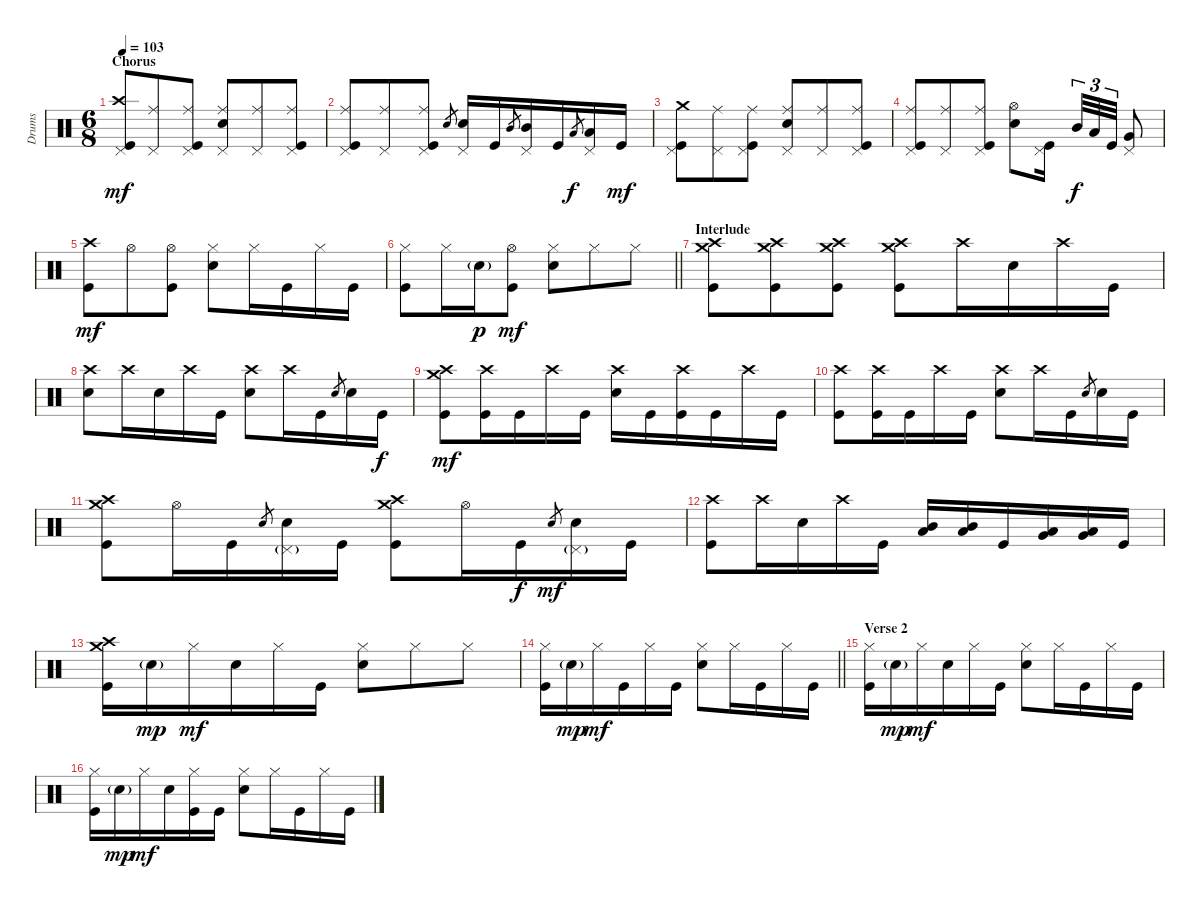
\track ("Drums" "Drums") {instrument percussion}
\staff {score}
\articulation defaults
\ts (6 8)
\section ("" "Chorus")
\tempo 103
\clef neutral
\ks c
("Pedal Hi-Hat (hit)" "Crash high (hit)" "Kick (hit)").8{dy mf} ("Pedal Hi-Hat (hit)" "Ride (middle)").8 ("Pedal Hi-Hat (hit)" "Ride (middle)" "Kick (hit)").8 ("Pedal Hi-Hat (hit)" "Ride (middle)" "Snare (hit) 2").8 ("Pedal Hi-Hat (hit)" "Ride (middle)").8 ("Pedal Hi-Hat (hit)" "Ride (middle)" "Kick (hit)").8 |
("Pedal Hi-Hat (hit)" "Ride (middle)" "Kick (hit)").8 ("Pedal Hi-Hat (hit)" "Ride (middle)").8 ("Pedal Hi-Hat (hit)" "Ride (middle)" "Kick (hit)").8 "Snare (hit) 2".8{gr} ("Pedal Hi-Hat (hit)" "Snare (hit) 2").16 "Kick (hit)".16 "Mid Tom (hit)".8{gr} ("Pedal Hi-Hat (hit)" "Mid Tom (hit)").16 "Kick (hit)".16 "Low Tom (hit)".8{gr dy f} ("Pedal Hi-Hat (hit)" "Low Tom (hit)").16 "Kick (hit)".16{dy mf} |
("Crash medium (hit)" "Pedal Hi-Hat (hit)" "Kick (hit)").8 ("Pedal Hi-Hat (hit)" "Ride (middle)").8 ("Pedal Hi-Hat (hit)" "Ride (middle)" "Kick (hit)").8 ("Pedal Hi-Hat (hit)" "Ride (middle)" "Snare (hit) 2").8 ("Pedal Hi-Hat (hit)" "Ride (middle)").8 ("Pedal Hi-Hat (hit)" "Ride (middle)" "Kick (hit)").8 |
("Pedal Hi-Hat (hit)" "Ride (middle)" "Kick (hit)").8 ("Pedal Hi-Hat (hit)" "Ride (middle)").8 ("Pedal Hi-Hat (hit)" "Ride (middle)" "Kick (hit)").8 ("Hi-Hat (open)" "Snare (hit) 2").8 ("Pedal Hi-Hat (hit)" "Kick (hit)").16{beam splitsecondary} "Mid Tom (hit)".32{tu (3 2) dy f} "Low Tom (hit)".32{tu (3 2)} "Kick (hit)".32{tu (3 2)} ("Pedal Hi-Hat (hit)" "Very Low Tom (hit)").8 |
("Crash high (hit)" "Kick (hit)").8{dy mf} "Hi-Hat (open)".8 ("Hi-Hat (open)" "Kick (hit)").8 ("Hi-Hat (closed)" "Snare (hit) 2").8 "Hi-Hat (closed)".16 "Kick (hit)".16 "Hi-Hat (closed)".16 "Kick (hit)".16 |
\barLineRight lightlight
("Hi-Hat (closed)" "Kick (hit)").8 "Hi-Hat (closed)".16 "Snare (hit) 2"{g}.16{dy p} ("Hi-Hat (open)" "Kick (hit)").8{dy mf} ("Hi-Hat (closed)" "Snare (hit) 2").8 "Hi-Hat (closed)".8 "Hi-Hat (closed)".8 |
\section ("" "Interlude")
("Crash medium (hit)" "Crash high (hit)" "Kick (hit)").8 ("Crash medium (hit)" "Crash high (hit)" "Kick (hit)").8 ("Crash medium (hit)" "Crash high (hit)" "Kick (hit)").8 ("Crash medium (hit)" "Crash high (hit)" "Kick (hit)").8 "Crash high (hit)".16 "Snare (hit) 2".16 "Crash high (hit)".16 "Kick (hit)".16 |
("Crash high (hit)" "Snare (hit) 2").8 "Crash high (hit)".16 "Snare (hit) 2".16 "Crash high (hit)".16 "Kick (hit)".16 ("Crash high (hit)" "Snare (hit) 2").8 "Crash high (hit)".16 "Kick (hit)".16 "Snare (hit) 2".8{gr} "Snare (hit) 2".16 "Kick (hit)".16{dy f} |
("Crash medium (hit)" "Crash high (hit)" "Kick (hit)").8{dy mf} ("Crash high (hit)" "Kick (hit)").16 "Kick (hit)".16 "Crash high (hit)".16 "Kick (hit)".16 ("Crash high (hit)" "Snare (hit) 2").16 "Kick (hit)".16 ("Crash high (hit)" "Kick (hit)").16 "Kick (hit)".16 "Crash high (hit)".16 "Kick (hit)".16 |
("Crash high (hit)" "Kick (hit)").8 ("Crash high (hit)" "Kick (hit)").16 "Kick (hit)".16 "Crash high (hit)".16 "Kick (hit)".16 ("Crash high (hit)" "Snare (hit) 2").8 "Crash high (hit)".16 "Kick (hit)".16 "Snare (hit) 2".8{gr} "Snare (hit) 2".16 "Kick (hit)".16 |
("Crash medium (hit)" "Crash high (hit)" "Kick (hit)").8 "Hi-Hat (open)".16 "Kick (hit)".16 "Snare (hit) 2".8{gr} ("Pedal Hi-Hat (hit)"{g} "Snare (hit) 2").16 "Kick (hit)".16 ("Crash medium (hit)" "Crash high (hit)" "Kick (hit)").8 "Hi-Hat (open)".16 "Kick (hit)".16{dy f} "Snare (hit) 2".8{gr dy mf} ("Pedal Hi-Hat (hit)"{g} "Snare (hit) 2").16 "Kick (hit)".16 |
("Crash high (hit)" "Kick (hit)").8 "Crash high (hit)".16 "Snare (hit) 2".16 "Crash high (hit)".16 "Kick (hit)".16 ("Mid Tom (hit)" "Low Tom (hit)").16 ("Mid Tom (hit)" "Low Tom (hit)").16 "Kick (hit)".16 ("Low Tom (hit)" "Very Low Tom (hit)").16 ("Low Tom (hit)" "Very Low Tom (hit)").16 "Kick (hit)".16 |
("Crash medium (hit)" "Crash high (hit)" "Kick (hit)").16 "Snare (hit) 2"{g}.16{dy mp} "Hi-Hat (closed)".16{dy mf} "Snare (hit) 2".16 "Hi-Hat (closed)".16 "Kick (hit)".16 ("Hi-Hat (closed)" "Snare (hit) 2").8 "Hi-Hat (closed)".8 "Hi-Hat (closed)".8 |
\barLineRight lightlight
("Hi-Hat (closed)" "Kick (hit)").16 "Snare (hit) 2"{g}.16{dy mp} "Hi-Hat (closed)".16{dy mf} "Kick (hit)".16 "Hi-Hat (closed)".16 "Kick (hit)".16 ("Hi-Hat (closed)" "Snare (hit) 2").8 "Hi-Hat (closed)".16 "Kick (hit)".16 "Hi-Hat (closed)".16 "Kick (hit)".16 |
\section ("" "Verse 2")
("Kick (hit)" "Hi-Hat (closed)").16 "Snare (hit) 2"{g}.16{dy mp} "Hi-Hat (closed)".16{dy mf} "Snare (hit) 2".16 "Hi-Hat (closed)".16 "Kick (hit)".16 ("Hi-Hat (closed)" "Snare (hit) 2").8 "Hi-Hat (closed)".16 "Kick (hit)".16 "Hi-Hat (closed)".16 "Kick (hit)".16 |
("Kick (hit)" "Hi-Hat (closed)").16 "Snare (hit) 2"{g}.16{dy mp} "Hi-Hat (closed)".16{dy mf} "Snare (hit) 2".16 ("Hi-Hat (closed)" "Kick (hit)").16 "Kick (hit)".16 ("Hi-Hat (closed)" "Snare (hit) 2").8 "Hi-Hat (closed)".16 "Kick (hit)".16 "Hi-Hat (closed)".16 "Kick (hit)".16
